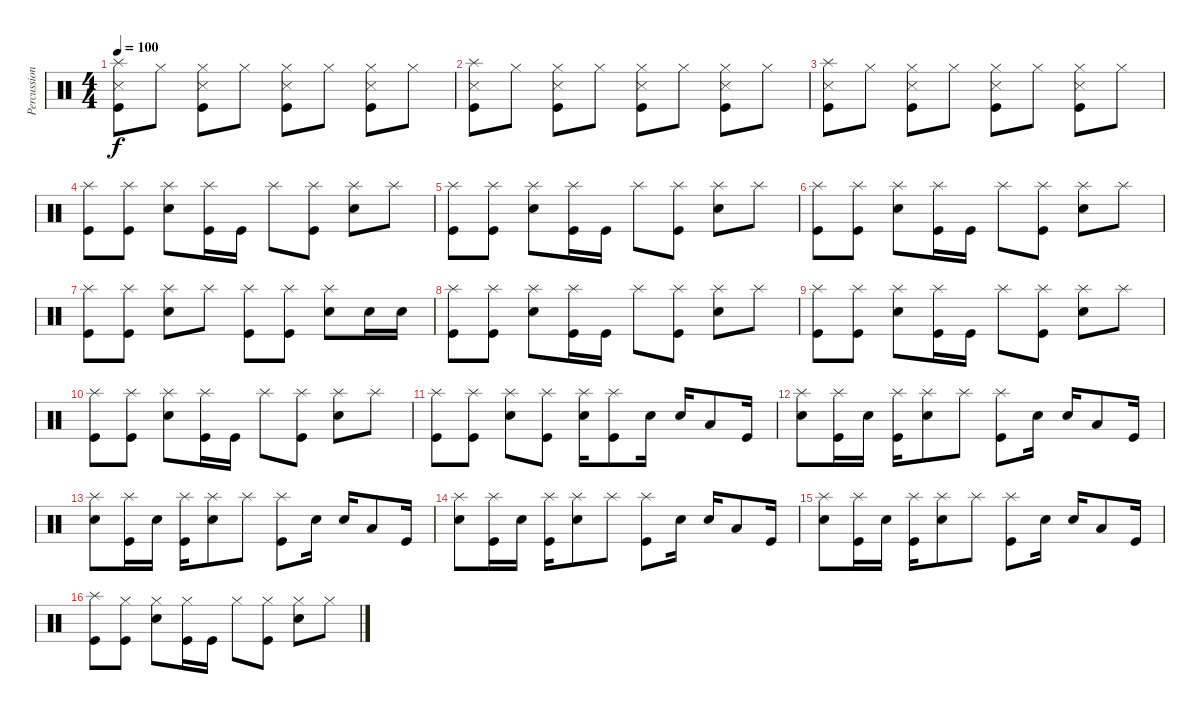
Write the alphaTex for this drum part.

\track ("Percussions" "Percussion") {instrument percussion}
\staff {score}
\articulation defaults
\ts (4 4)
\tempo 100
\clef neutral
\ks c
("Splash (hit)" "Snare (side stick) 3" "Kick (hit)").8{dy f} "Hi-Hat (closed)".8 ("Hi-Hat (closed)" "Snare (side stick) 3" "Kick (hit)").8 "Hi-Hat (closed)".8 ("Hi-Hat (closed)" "Snare (side stick) 3" "Kick (hit)").8 "Hi-Hat (closed)".8 ("Hi-Hat (closed)" "Snare (side stick) 3" "Kick (hit)").8 "Hi-Hat (closed)".8 |
("Splash (hit)" "Snare (side stick) 3" "Kick (hit)").8 "Hi-Hat (closed)".8 ("Hi-Hat (closed)" "Snare (side stick) 3" "Kick (hit)").8 "Hi-Hat (closed)".8 ("Hi-Hat (closed)" "Snare (side stick) 3" "Kick (hit)").8 "Hi-Hat (closed)".8 ("Hi-Hat (closed)" "Snare (side stick) 3" "Kick (hit)").8 "Hi-Hat (closed)".8 |
("Splash (hit)" "Snare (side stick) 3" "Kick (hit)").8 "Hi-Hat (closed)".8 ("Hi-Hat (closed)" "Snare (side stick) 3" "Kick (hit)").8 "Hi-Hat (closed)".8 ("Hi-Hat (closed)" "Snare (side stick) 3" "Kick (hit)").8 "Hi-Hat (closed)".8 ("Hi-Hat (closed)" "Snare (side stick) 3" "Kick (hit)").8 "Hi-Hat (closed)".8 |
("Splash (hit)" "Kick (hit)").8 ("Splash (hit)" "Kick (hit)").8 ("Splash (hit)" "Snare (hit) 2").8 ("Splash (hit)" "Kick (hit)").16 "Kick (hit)".16 "Splash (hit)".8 ("Splash (hit)" "Kick (hit)").8 ("Splash (hit)" "Snare (hit) 2").8 "Splash (hit)".8 |
("Splash (hit)" "Kick (hit)").8 ("Splash (hit)" "Kick (hit)").8 ("Splash (hit)" "Snare (hit) 2").8 ("Splash (hit)" "Kick (hit)").16 "Kick (hit)".16 "Splash (hit)".8 ("Splash (hit)" "Kick (hit)").8 ("Splash (hit)" "Snare (hit) 2").8 "Splash (hit)".8 |
("Splash (hit)" "Kick (hit)").8 ("Splash (hit)" "Kick (hit)").8 ("Splash (hit)" "Snare (hit) 2").8 ("Splash (hit)" "Kick (hit)").16 "Kick (hit)".16 "Splash (hit)".8 ("Splash (hit)" "Kick (hit)").8 ("Splash (hit)" "Snare (hit) 2").8 "Splash (hit)".8 |
("Splash (hit)" "Kick (hit)").8 ("Splash (hit)" "Kick (hit)").8 ("Splash (hit)" "Snare (hit) 2").8 "Splash (hit)".8 ("Splash (hit)" "Kick (hit)").8 ("Splash (hit)" "Kick (hit)").8 ("Splash (hit)" "Snare (hit) 2").8 "Snare (hit) 2".16 "Snare (hit) 2".16 |
("Splash (hit)" "Kick (hit)").8 ("Splash (hit)" "Kick (hit)").8 ("Splash (hit)" "Snare (hit) 2").8 ("Splash (hit)" "Kick (hit)").16 "Kick (hit)".16 "Splash (hit)".8 ("Splash (hit)" "Kick (hit)").8 ("Splash (hit)" "Snare (hit) 2").8 "Splash (hit)".8 |
("Splash (hit)" "Kick (hit)").8 ("Splash (hit)" "Kick (hit)").8 ("Splash (hit)" "Snare (hit) 2").8 ("Splash (hit)" "Kick (hit)").16 "Kick (hit)".16 "Splash (hit)".8 ("Splash (hit)" "Kick (hit)").8 ("Splash (hit)" "Snare (hit) 2").8 "Splash (hit)".8 |
("Splash (hit)" "Kick (hit)").8 ("Splash (hit)" "Kick (hit)").8 ("Splash (hit)" "Snare (hit) 2").8 ("Splash (hit)" "Kick (hit)").16 "Kick (hit)".16 "Splash (hit)".8 ("Splash (hit)" "Kick (hit)").8 ("Splash (hit)" "Snare (hit) 2").8 "Splash (hit)".8 |
("Splash (hit)" "Kick (hit)").8 ("Splash (hit)" "Kick (hit)").8 ("Splash (hit)" "Snare (hit) 2").8 ("Splash (hit)" "Kick (hit)").8 ("Splash (hit)" "Snare (hit) 2").16 ("Splash (hit)" "Kick (hit)").8 "Snare (hit) 2".16 "Snare (hit) 2".16 "Low Tom (hit)".8 "Kick (hit)".16 |
("Splash (hit)" "Snare (hit) 2").8 ("Splash (hit)" "Kick (hit)").16 "Snare (hit) 2".16 ("Splash (hit)" "Kick (hit)").16 ("Splash (hit)" "Snare (hit) 2").8 "Splash (hit)".8 ("Splash (hit)" "Kick (hit)").8 "Snare (hit) 2".16 "Snare (hit) 2".16 "Low Tom (hit)".8 "Kick (hit)".16 |
("Splash (hit)" "Snare (hit) 2").8 ("Splash (hit)" "Kick (hit)").16 "Snare (hit) 2".16 ("Splash (hit)" "Kick (hit)").16 ("Splash (hit)" "Snare (hit) 2").8 "Splash (hit)".8 ("Splash (hit)" "Kick (hit)").8 "Snare (hit) 2".16 "Snare (hit) 2".16 "Low Tom (hit)".8 "Kick (hit)".16 |
("Splash (hit)" "Snare (hit) 2").8 ("Splash (hit)" "Kick (hit)").16 "Snare (hit) 2".16 ("Splash (hit)" "Kick (hit)").16 ("Splash (hit)" "Snare (hit) 2").8 "Splash (hit)".8 ("Splash (hit)" "Kick (hit)").8 "Snare (hit) 2".16 "Snare (hit) 2".16 "Low Tom (hit)".8 "Kick (hit)".16 |
("Splash (hit)" "Snare (hit) 2").8 ("Splash (hit)" "Kick (hit)").16 "Snare (hit) 2".16 ("Splash (hit)" "Kick (hit)").16 ("Splash (hit)" "Snare (hit) 2").8 "Splash (hit)".8 ("Splash (hit)" "Kick (hit)").8 "Snare (hit) 2".16 "Snare (hit) 2".16 "Low Tom (hit)".8 "Kick (hit)".16 |
("Splash (hit)" "Kick (hit)").8 ("Hi-Hat (closed)" "Kick (hit)").8 ("Hi-Hat (closed)" "Snare (hit) 2").8 ("Hi-Hat (closed)" "Kick (hit)").16 "Kick (hit)".16 "Hi-Hat (closed)".8 ("Hi-Hat (closed)" "Kick (hit)").8 ("Hi-Hat (closed)" "Snare (hit) 2").8 "Hi-Hat (closed)".8
